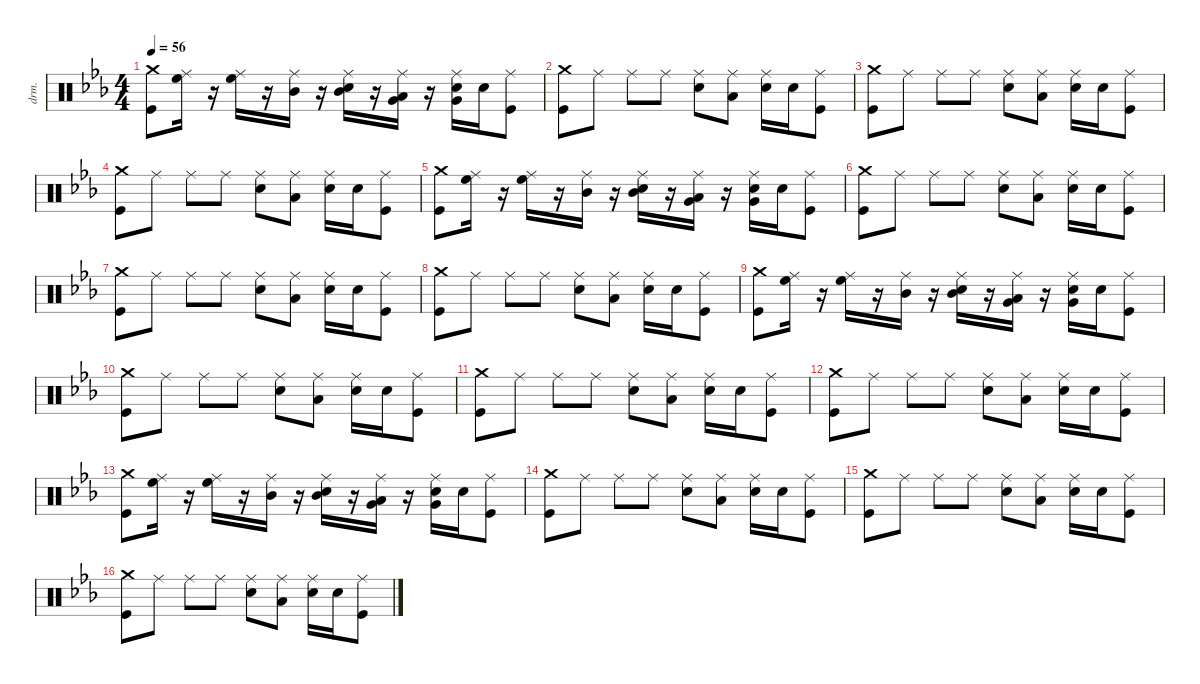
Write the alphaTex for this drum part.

\defaultSystemsLayout 4
\hideDynamics
\bracketExtendMode nobrackets
\otherSystemsTrackNameOrientation horizontal
\track ("Percussion" "drm.") {instrument percussion}
\staff {score}
\articulation defaults
\ts (4 4)
\tempo 56
\clef neutral
\ks eb
("Crash medium (hit)"{acc forcenatural} "Kick (hit)"{acc forcenatural}).8{dy f} ("High Floor Tom (hit)"{acc forcenatural} "Ride (middle)"{acc forcenatural}).16 r.16 ("High Floor Tom (hit)"{acc forcenatural} "Ride (middle)"{acc forcenatural}).16 r.16 ("Mid Tom (hit)"{acc forcenatural} "Ride (middle)"{acc forcenatural}).16 r.16 ("Mid Tom (hit)"{acc forcenatural} "Snare (hit) 2"{acc forcenatural} "Ride (middle)"{acc forcenatural}).16 r.16 ("Very Low Tom (hit)"{acc forcenatural} "Low Floor Tom (hit)"{acc forcenatural} "Ride (middle)"{acc forcenatural}).16 r.16 ("Very Low Tom (hit)"{acc forcenatural} "Snare (hit) 2"{acc forcenatural} "Ride (middle)"{acc forcenatural}).16 "Snare (hit) 2"{acc forcenatural}.16 ("Kick (hit)"{acc forcenatural} "Ride (middle)"{acc forcenatural}).8 |
("Crash medium (hit)"{acc forcenatural} "Kick (hit)"{acc forcenatural}).8 "Ride (middle)"{acc forcenatural}.8 "Ride (middle)"{acc forcenatural}.8 "Ride (middle)"{acc forcenatural}.8 ("Snare (hit) 2"{acc forcenatural} "Ride (middle)"{acc forcenatural}).8 ("Low Floor Tom (hit)"{acc forcenatural} "Ride (middle)"{acc forcenatural}).8 ("Snare (hit) 2"{acc forcenatural} "Ride (middle)"{acc forcenatural}).16 "Snare (hit) 2"{acc forcenatural}.16 ("Kick (hit)"{acc forcenatural} "Ride (middle)"{acc forcenatural}).8 |
("Crash medium (hit)"{acc forcenatural} "Kick (hit)"{acc forcenatural}).8 "Ride (middle)"{acc forcenatural}.8 "Ride (middle)"{acc forcenatural}.8 "Ride (middle)"{acc forcenatural}.8 ("Snare (hit) 2"{acc forcenatural} "Ride (middle)"{acc forcenatural}).8 ("Low Floor Tom (hit)"{acc forcenatural} "Ride (middle)"{acc forcenatural}).8 ("Snare (hit) 2"{acc forcenatural} "Ride (middle)"{acc forcenatural}).16 "Snare (hit) 2"{acc forcenatural}.16 ("Kick (hit)"{acc forcenatural} "Ride (middle)"{acc forcenatural}).8 |
("Crash medium (hit)"{acc forcenatural} "Kick (hit)"{acc forcenatural}).8 "Ride (middle)"{acc forcenatural}.8 "Ride (middle)"{acc forcenatural}.8 "Ride (middle)"{acc forcenatural}.8 ("Snare (hit) 2"{acc forcenatural} "Ride (middle)"{acc forcenatural}).8 ("Low Floor Tom (hit)"{acc forcenatural} "Ride (middle)"{acc forcenatural}).8 ("Snare (hit) 2"{acc forcenatural} "Ride (middle)"{acc forcenatural}).16 "Snare (hit) 2"{acc forcenatural}.16 ("Kick (hit)"{acc forcenatural} "Ride (middle)"{acc forcenatural}).8 |
("Crash medium (hit)"{acc forcenatural} "Kick (hit)"{acc forcenatural}).8 ("High Floor Tom (hit)"{acc forcenatural} "Ride (middle)"{acc forcenatural}).16 r.16 ("High Floor Tom (hit)"{acc forcenatural} "Ride (middle)"{acc forcenatural}).16 r.16 ("Mid Tom (hit)"{acc forcenatural} "Ride (middle)"{acc forcenatural}).16 r.16 ("Mid Tom (hit)"{acc forcenatural} "Snare (hit) 2"{acc forcenatural} "Ride (middle)"{acc forcenatural}).16 r.16 ("Very Low Tom (hit)"{acc forcenatural} "Low Floor Tom (hit)"{acc forcenatural} "Ride (middle)"{acc forcenatural}).16 r.16 ("Very Low Tom (hit)"{acc forcenatural} "Snare (hit) 2"{acc forcenatural} "Ride (middle)"{acc forcenatural}).16 "Snare (hit) 2"{acc forcenatural}.16 ("Kick (hit)"{acc forcenatural} "Ride (middle)"{acc forcenatural}).8 |
("Crash medium (hit)"{acc forcenatural} "Kick (hit)"{acc forcenatural}).8 "Ride (middle)"{acc forcenatural}.8 "Ride (middle)"{acc forcenatural}.8 "Ride (middle)"{acc forcenatural}.8 ("Snare (hit) 2"{acc forcenatural} "Ride (middle)"{acc forcenatural}).8 ("Low Floor Tom (hit)"{acc forcenatural} "Ride (middle)"{acc forcenatural}).8 ("Snare (hit) 2"{acc forcenatural} "Ride (middle)"{acc forcenatural}).16 "Snare (hit) 2"{acc forcenatural}.16 ("Kick (hit)"{acc forcenatural} "Ride (middle)"{acc forcenatural}).8 |
("Crash medium (hit)"{acc forcenatural} "Kick (hit)"{acc forcenatural}).8 "Ride (middle)"{acc forcenatural}.8 "Ride (middle)"{acc forcenatural}.8 "Ride (middle)"{acc forcenatural}.8 ("Snare (hit) 2"{acc forcenatural} "Ride (middle)"{acc forcenatural}).8 ("Low Floor Tom (hit)"{acc forcenatural} "Ride (middle)"{acc forcenatural}).8 ("Snare (hit) 2"{acc forcenatural} "Ride (middle)"{acc forcenatural}).16 "Snare (hit) 2"{acc forcenatural}.16 ("Kick (hit)"{acc forcenatural} "Ride (middle)"{acc forcenatural}).8 |
("Crash medium (hit)"{acc forcenatural} "Kick (hit)"{acc forcenatural}).8 "Ride (middle)"{acc forcenatural}.8 "Ride (middle)"{acc forcenatural}.8 "Ride (middle)"{acc forcenatural}.8 ("Snare (hit) 2"{acc forcenatural} "Ride (middle)"{acc forcenatural}).8 ("Low Floor Tom (hit)"{acc forcenatural} "Ride (middle)"{acc forcenatural}).8 ("Snare (hit) 2"{acc forcenatural} "Ride (middle)"{acc forcenatural}).16 "Snare (hit) 2"{acc forcenatural}.16 ("Kick (hit)"{acc forcenatural} "Ride (middle)"{acc forcenatural}).8 |
("Crash medium (hit)"{acc forcenatural} "Kick (hit)"{acc forcenatural}).8 ("High Floor Tom (hit)"{acc forcenatural} "Ride (middle)"{acc forcenatural}).16 r.16 ("High Floor Tom (hit)"{acc forcenatural} "Ride (middle)"{acc forcenatural}).16 r.16 ("Mid Tom (hit)"{acc forcenatural} "Ride (middle)"{acc forcenatural}).16 r.16 ("Mid Tom (hit)"{acc forcenatural} "Snare (hit) 2"{acc forcenatural} "Ride (middle)"{acc forcenatural}).16 r.16 ("Very Low Tom (hit)"{acc forcenatural} "Low Floor Tom (hit)"{acc forcenatural} "Ride (middle)"{acc forcenatural}).16 r.16 ("Very Low Tom (hit)"{acc forcenatural} "Snare (hit) 2"{acc forcenatural} "Ride (middle)"{acc forcenatural}).16 "Snare (hit) 2"{acc forcenatural}.16 ("Kick (hit)"{acc forcenatural} "Ride (middle)"{acc forcenatural}).8 |
("Crash medium (hit)"{acc forcenatural} "Kick (hit)"{acc forcenatural}).8 "Ride (middle)"{acc forcenatural}.8 "Ride (middle)"{acc forcenatural}.8 "Ride (middle)"{acc forcenatural}.8 ("Snare (hit) 2"{acc forcenatural} "Ride (middle)"{acc forcenatural}).8 ("Low Floor Tom (hit)"{acc forcenatural} "Ride (middle)"{acc forcenatural}).8 ("Snare (hit) 2"{acc forcenatural} "Ride (middle)"{acc forcenatural}).16 "Snare (hit) 2"{acc forcenatural}.16 ("Kick (hit)"{acc forcenatural} "Ride (middle)"{acc forcenatural}).8 |
("Crash medium (hit)"{acc forcenatural} "Kick (hit)"{acc forcenatural}).8 "Ride (middle)"{acc forcenatural}.8 "Ride (middle)"{acc forcenatural}.8 "Ride (middle)"{acc forcenatural}.8 ("Snare (hit) 2"{acc forcenatural} "Ride (middle)"{acc forcenatural}).8 ("Low Floor Tom (hit)"{acc forcenatural} "Ride (middle)"{acc forcenatural}).8 ("Snare (hit) 2"{acc forcenatural} "Ride (middle)"{acc forcenatural}).16 "Snare (hit) 2"{acc forcenatural}.16 ("Kick (hit)"{acc forcenatural} "Ride (middle)"{acc forcenatural}).8 |
("Crash medium (hit)"{acc forcenatural} "Kick (hit)"{acc forcenatural}).8 "Ride (middle)"{acc forcenatural}.8 "Ride (middle)"{acc forcenatural}.8 "Ride (middle)"{acc forcenatural}.8 ("Snare (hit) 2"{acc forcenatural} "Ride (middle)"{acc forcenatural}).8 ("Low Floor Tom (hit)"{acc forcenatural} "Ride (middle)"{acc forcenatural}).8 ("Snare (hit) 2"{acc forcenatural} "Ride (middle)"{acc forcenatural}).16 "Snare (hit) 2"{acc forcenatural}.16 ("Kick (hit)"{acc forcenatural} "Ride (middle)"{acc forcenatural}).8 |
("Crash medium (hit)"{acc forcenatural} "Kick (hit)"{acc forcenatural}).8 ("High Floor Tom (hit)"{acc forcenatural} "Ride (middle)"{acc forcenatural}).16 r.16 ("High Floor Tom (hit)"{acc forcenatural} "Ride (middle)"{acc forcenatural}).16 r.16 ("Mid Tom (hit)"{acc forcenatural} "Ride (middle)"{acc forcenatural}).16 r.16 ("Mid Tom (hit)"{acc forcenatural} "Snare (hit) 2"{acc forcenatural} "Ride (middle)"{acc forcenatural}).16 r.16 ("Very Low Tom (hit)"{acc forcenatural} "Low Floor Tom (hit)"{acc forcenatural} "Ride (middle)"{acc forcenatural}).16 r.16 ("Very Low Tom (hit)"{acc forcenatural} "Snare (hit) 2"{acc forcenatural} "Ride (middle)"{acc forcenatural}).16 "Snare (hit) 2"{acc forcenatural}.16 ("Kick (hit)"{acc forcenatural} "Ride (middle)"{acc forcenatural}).8 |
("Crash medium (hit)"{acc forcenatural} "Kick (hit)"{acc forcenatural}).8 "Ride (middle)"{acc forcenatural}.8 "Ride (middle)"{acc forcenatural}.8 "Ride (middle)"{acc forcenatural}.8 ("Snare (hit) 2"{acc forcenatural} "Ride (middle)"{acc forcenatural}).8 ("Low Floor Tom (hit)"{acc forcenatural} "Ride (middle)"{acc forcenatural}).8 ("Snare (hit) 2"{acc forcenatural} "Ride (middle)"{acc forcenatural}).16 "Snare (hit) 2"{acc forcenatural}.16 ("Kick (hit)"{acc forcenatural} "Ride (middle)"{acc forcenatural}).8 |
("Crash medium (hit)"{acc forcenatural} "Kick (hit)"{acc forcenatural}).8 "Ride (middle)"{acc forcenatural}.8 "Ride (middle)"{acc forcenatural}.8 "Ride (middle)"{acc forcenatural}.8 ("Snare (hit) 2"{acc forcenatural} "Ride (middle)"{acc forcenatural}).8 ("Low Floor Tom (hit)"{acc forcenatural} "Ride (middle)"{acc forcenatural}).8 ("Snare (hit) 2"{acc forcenatural} "Ride (middle)"{acc forcenatural}).16 "Snare (hit) 2"{acc forcenatural}.16 ("Kick (hit)"{acc forcenatural} "Ride (middle)"{acc forcenatural}).8 |
("Crash medium (hit)"{acc forcenatural} "Kick (hit)"{acc forcenatural}).8 "Ride (middle)"{acc forcenatural}.8 "Ride (middle)"{acc forcenatural}.8 "Ride (middle)"{acc forcenatural}.8 ("Snare (hit) 2"{acc forcenatural} "Ride (middle)"{acc forcenatural}).8 ("Low Floor Tom (hit)"{acc forcenatural} "Ride (middle)"{acc forcenatural}).8 ("Snare (hit) 2"{acc forcenatural} "Ride (middle)"{acc forcenatural}).16 "Snare (hit) 2"{acc forcenatural}.16 ("Kick (hit)"{acc forcenatural} "Ride (middle)"{acc forcenatural}).8
